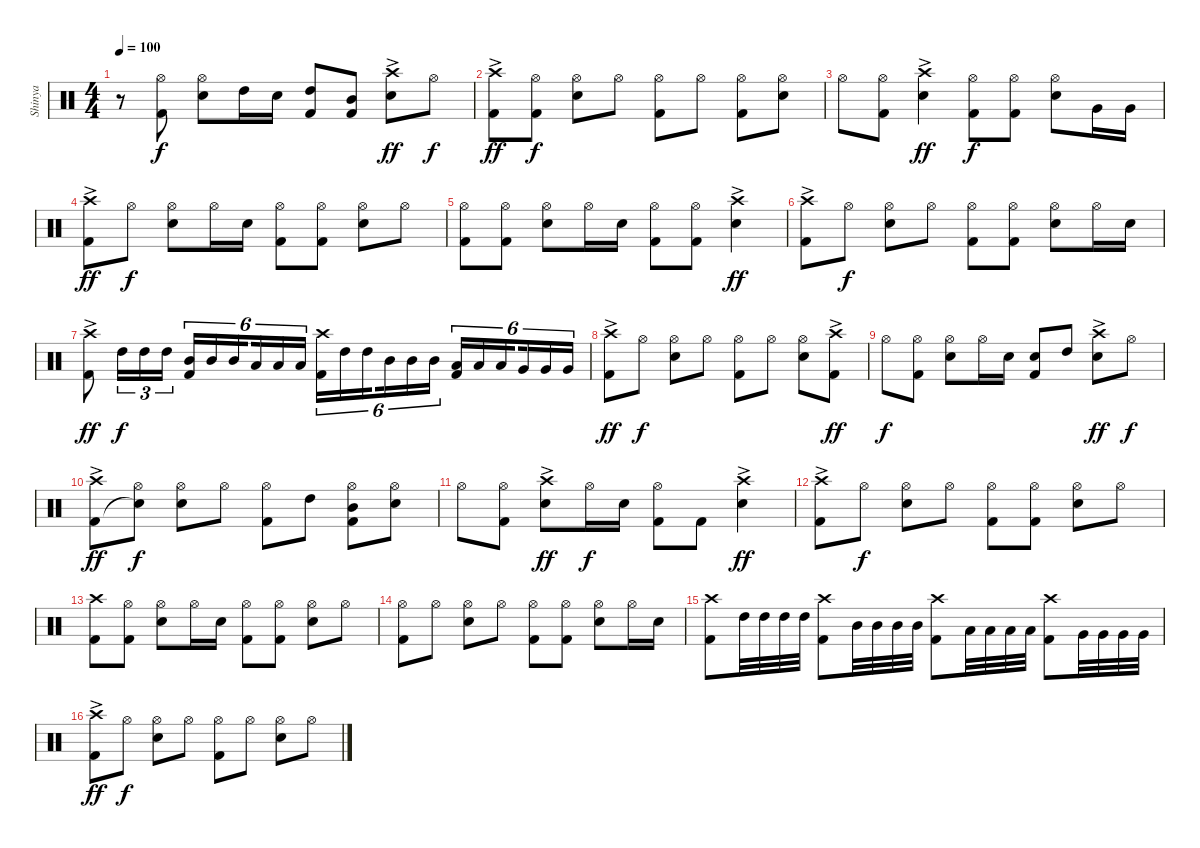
\track ("Shinya" "Shinya") {instrument percussion}
\staff {score}
\articulation defaults
\ts (4 4)
\tempo 100
\clef neutral
\ks c
r.8{dy ff} ("Hi-Hat (open)" "Kick (hit) 2").8{dy f} ("Hi-Hat (open)" "Snare (hit) 2").8 "High Tom (hit)".16 "Snare (hit) 2".16 ("High Tom (hit)" "Kick (hit) 2").8 ("Mid Tom (hit)" "Kick (hit) 2").8 ("Crash high (hit)"{ac} "Snare (hit) 2").8{dy ff} "Hi-Hat (open)".8{dy f} |
("Crash high (hit)"{ac} "Kick (hit) 2").8{dy ff} ("Hi-Hat (open)" "Kick (hit) 2").8{dy f} ("Hi-Hat (open)" "Snare (hit) 2").8 "Hi-Hat (open)".8 ("Hi-Hat (open)" "Kick (hit) 2").8 "Hi-Hat (open)".8 ("Hi-Hat (open)" "Kick (hit) 2").8 ("Hi-Hat (open)" "Snare (hit) 2").8 |
"Hi-Hat (open)".8 ("Hi-Hat (open)" "Kick (hit) 2").8 ("Crash high (hit)"{ac} "Snare (hit) 2").4{dy ff} ("Hi-Hat (open)" "Kick (hit) 2").8{dy f} ("Hi-Hat (open)" "Kick (hit) 2").8 ("Hi-Hat (open)" "Snare (hit) 2").8 "Very Low Tom (hit)".16 "Very Low Tom (hit)".16 |
("Crash high (hit)"{ac} "Kick (hit) 2").8{dy ff} "Hi-Hat (open)".8{dy f} ("Hi-Hat (open)" "Snare (hit) 2").8 "Hi-Hat (open)".16 "Snare (hit) 2".16 ("Hi-Hat (open)" "Kick (hit) 2").8 ("Hi-Hat (open)" "Kick (hit) 2").8 ("Hi-Hat (open)" "Snare (hit) 2").8 "Hi-Hat (open)".8 |
("Hi-Hat (open)" "Kick (hit) 2").8 ("Hi-Hat (open)" "Kick (hit) 2").8 ("Hi-Hat (open)" "Snare (hit) 2").8 "Hi-Hat (open)".16 "Snare (hit) 2".16 ("Hi-Hat (open)" "Kick (hit) 2").8 ("Hi-Hat (open)" "Kick (hit) 2").8 ("Crash high (hit)"{ac} "Snare (hit) 2").4{dy ff} |
("Crash high (hit)"{ac} "Kick (hit) 2").8 "Hi-Hat (open)".8{dy f} ("Hi-Hat (open)" "Snare (hit) 2").8 "Hi-Hat (open)".8 ("Hi-Hat (open)" "Kick (hit) 2").8 ("Hi-Hat (open)" "Kick (hit) 2").8 ("Hi-Hat (open)" "Snare (hit) 2").8 "Hi-Hat (open)".16 "Snare (hit) 2".16 |
("Crash high (hit)"{ac} "Kick (hit) 2").8{dy ff} "High Tom (hit)".16{tu (3 2) dy f} "High Tom (hit)".16{tu (3 2)} "High Tom (hit)".16{tu (3 2)} ("Mid Tom (hit)" "Kick (hit) 2").16{tu (6 4)} "Mid Tom (hit)".16{tu (6 4)} "Mid Tom (hit)".16{tu (6 4) beam splitsecondary} "Low Tom (hit)".16{tu (6 4)} "Low Tom (hit)".16{tu (6 4)} "Low Tom (hit)".16{tu (6 4)} ("Crash high (hit)" "Kick (hit) 2").16{tu (6 4)} "High Tom (hit)".16{tu (6 4)} "High Tom (hit)".16{tu (6 4) beam splitsecondary} "Mid Tom (hit)".16{tu (6 4)} "Mid Tom (hit)".16{tu (6 4)} "Mid Tom (hit)".16{tu (6 4)} ("Low Tom (hit)" "Kick (hit) 2").16{tu (6 4)} "Low Tom (hit)".16{tu (6 4)} "Low Tom (hit)".16{tu (6 4) beam splitsecondary} "Very Low Tom (hit)".16{tu (6 4)} "Very Low Tom (hit)".16{tu (6 4)} "Very Low Tom (hit)".16{tu (6 4)} |
("Crash high (hit)"{ac} "Kick (hit) 2").8{dy ff} "Hi-Hat (open)".8{dy f} ("Hi-Hat (open)" "Snare (hit) 2").8 "Hi-Hat (open)".8 ("Hi-Hat (open)" "Kick (hit) 2").8 "Hi-Hat (open)".8 ("Hi-Hat (open)" "Snare (hit) 2").8 ("Crash high (hit)"{ac} "Kick (hit) 2").8{dy ff} |
"Hi-Hat (open)".8{dy f} ("Hi-Hat (open)" "Kick (hit) 2").8 ("Hi-Hat (open)" "Snare (hit) 2").8 "Hi-Hat (open)".16 "Snare (hit) 2".16 ("Snare (hit) 2" "Kick (hit) 2").8 "High Tom (hit)".8 ("Crash high (hit)"{ac} "Snare (hit) 2").8{dy ff} "Hi-Hat (open)".8{dy f} |
("Crash high (hit)"{ac} "Kick (hit) 2").8{dy ff} ("Hi-Hat (open)" "Snare (hit)"{t}).8{dy f} ("Hi-Hat (open)" "Snare (hit) 2").8 "Hi-Hat (open)".8 ("Hi-Hat (open)" "Kick (hit) 2").8 "High Tom (hit)".8 ("Hi-Hat (open)" "Mid Tom (hit)" "Kick (hit) 2").8 ("Hi-Hat (open)" "Snare (hit) 2").8 |
"Hi-Hat (open)".8 ("Hi-Hat (open)" "Kick (hit) 2").8 ("Crash high (hit)"{ac} "Snare (hit) 2").8{dy ff} "Hi-Hat (open)".16{dy f} "Snare (hit) 2".16 ("Hi-Hat (open)" "Kick (hit) 2").8 "Kick (hit) 2".8 ("Crash high (hit)"{ac} "Snare (hit) 2").4{dy ff} |
("Crash high (hit)"{ac} "Kick (hit) 2").8 "Hi-Hat (open)".8{dy f} ("Hi-Hat (open)" "Snare (hit) 2").8 "Hi-Hat (open)".8 ("Hi-Hat (open)" "Kick (hit) 2").8 ("Hi-Hat (open)" "Kick (hit) 2").8 ("Hi-Hat (open)" "Snare (hit) 2").8 "Hi-Hat (open)".8 |
("Crash high (hit)" "Kick (hit) 2").8 ("Hi-Hat (open)" "Kick (hit) 2").8 ("Hi-Hat (open)" "Snare (hit) 2").8 "Hi-Hat (open)".16 "Snare (hit) 2".16 ("Hi-Hat (open)" "Kick (hit) 2").8 ("Hi-Hat (open)" "Kick (hit) 2").8 ("Hi-Hat (open)" "Snare (hit) 2").8 "Hi-Hat (open)".8 |
("Hi-Hat (open)" "Kick (hit) 2").8 "Hi-Hat (open)".8 ("Hi-Hat (open)" "Snare (hit) 2").8 "Hi-Hat (open)".8 ("Hi-Hat (open)" "Kick (hit) 2").8 ("Hi-Hat (open)" "Kick (hit) 2").8 ("Hi-Hat (open)" "Snare (hit) 2").8 "Hi-Hat (open)".16 "Snare (hit) 2".16 |
("Crash high (hit)" "Kick (hit) 2").8 "High Tom (hit)".32 "High Tom (hit)".32 "High Tom (hit)".32 "High Tom (hit)".32 ("Crash high (hit)" "Kick (hit) 2").8 "Mid Tom (hit)".32 "Mid Tom (hit)".32 "Mid Tom (hit)".32 "Mid Tom (hit)".32 ("Crash high (hit)" "Kick (hit) 2").8 "Low Tom (hit)".32 "Low Tom (hit)".32 "Low Tom (hit)".32 "Low Tom (hit)".32 ("Crash high (hit)" "Kick (hit) 2").8 "Very Low Tom (hit)".32 "Very Low Tom (hit)".32 "Very Low Tom (hit)".32 "Very Low Tom (hit)".32 |
("Crash high (hit)"{ac} "Kick (hit) 2").8{dy ff} "Hi-Hat (open)".8{dy f} ("Hi-Hat (open)" "Snare (hit) 2").8 "Hi-Hat (open)".8 ("Hi-Hat (open)" "Kick (hit) 2").8 "Hi-Hat (open)".8 ("Hi-Hat (open)" "Snare (hit) 2").8 "Hi-Hat (open)".8
